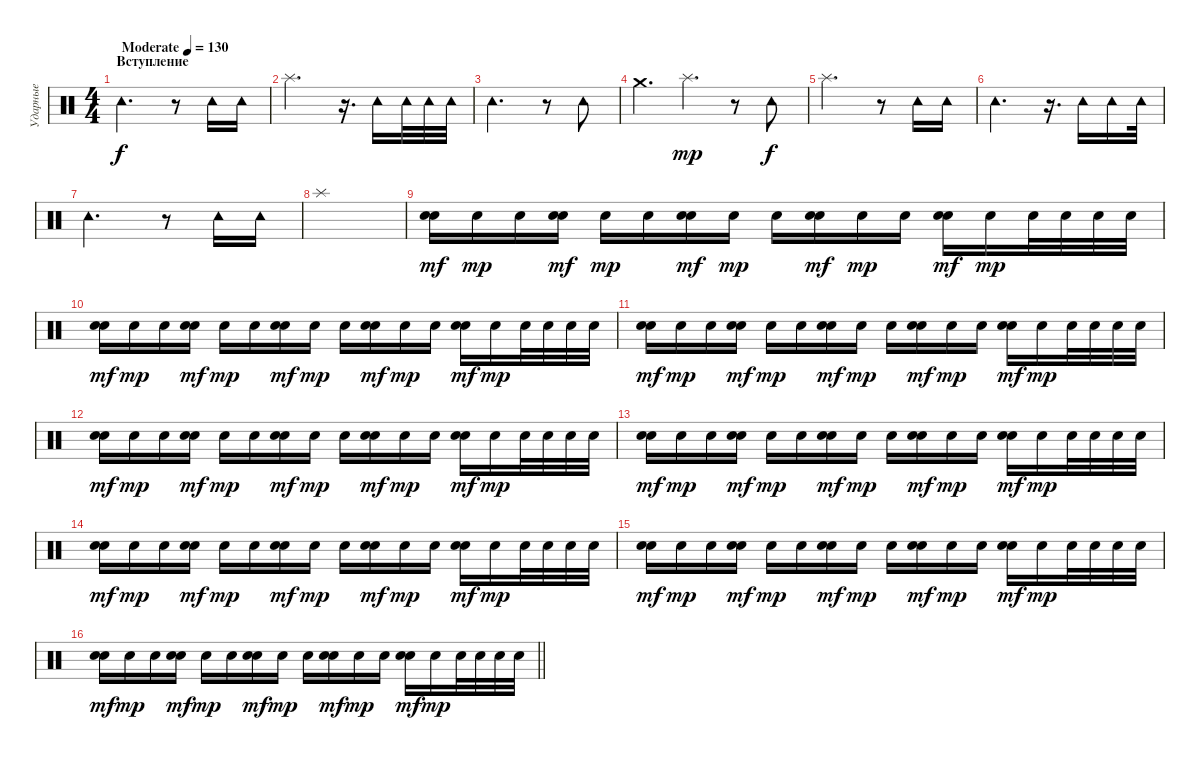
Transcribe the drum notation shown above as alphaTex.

\track ("Ударные" "Ударные") {instrument percussion}
\staff {score}
\articulation defaults
\ts (4 4)
\section ("" "Вступление")
\tempo (130 "Moderate")
\clef neutral
\ks c "Tambourine (hit)".2{d dy f}
r.8 "Tambourine (hit)".16 "Tambourine (hit)".16 |
"Splash (hit)".2{d} r.16{d} "Tambourine (hit)".16 "Tambourine (hit)".32 "Tambourine (hit)".32 "Tambourine (hit)".32 |
"Tambourine (hit)".2{d} r.8 "Tambourine (hit)".8 |
"Crash medium (hit)".4{d} "Splash (hit)".4{d dy mp} r.8 "Tambourine (hit)".8{dy f} |
"Splash (hit)".2{d} r.8 "Tambourine (hit)".16 "Tambourine (hit)".16 |
"Tambourine (hit)".2{d} r.16{d} "Tambourine (hit)".16 "Tambourine (hit)".16 "Tambourine (hit)".32 |
"Tambourine (hit)".2{d} r.8 "Tambourine (hit)".16 "Tambourine (hit)".16 |
"Splash (hit)".1 |
("Electric Snare (hit)" "Snare (hit) 2").16{dy mf} "Snare (hit) 2".16{dy mp} "Snare (hit) 2".16 ("Electric Snare (hit)" "Snare (hit) 2").16{dy mf} "Snare (hit) 2".16{dy mp} "Snare (hit) 2".16 ("Electric Snare (hit)" "Snare (hit) 2").16{dy mf} "Snare (hit) 2".16{dy mp} "Snare (hit) 2".16 ("Electric Snare (hit)" "Snare (hit) 2").16{dy mf} "Snare (hit) 2".16{dy mp} "Snare (hit) 2".16 ("Electric Snare (hit)" "Snare (hit) 2").16{dy mf} "Snare (hit) 2".16{dy mp} "Snare (hit) 2".32 "Snare (hit) 2".32 "Snare (hit) 2".32 "Snare (hit) 2".32 |
("Electric Snare (hit)" "Snare (hit) 2").16{dy mf} "Snare (hit) 2".16{dy mp} "Snare (hit) 2".16 ("Electric Snare (hit)" "Snare (hit) 2").16{dy mf} "Snare (hit) 2".16{dy mp} "Snare (hit) 2".16 ("Electric Snare (hit)" "Snare (hit) 2").16{dy mf} "Snare (hit) 2".16{dy mp} "Snare (hit) 2".16 ("Electric Snare (hit)" "Snare (hit) 2").16{dy mf} "Snare (hit) 2".16{dy mp} "Snare (hit) 2".16 ("Electric Snare (hit)" "Snare (hit) 2").16{dy mf} "Snare (hit) 2".16{dy mp} "Snare (hit) 2".32 "Snare (hit) 2".32 "Snare (hit) 2".32 "Snare (hit) 2".32 |
("Electric Snare (hit)" "Snare (hit) 2").16{dy mf} "Snare (hit) 2".16{dy mp} "Snare (hit) 2".16 ("Electric Snare (hit)" "Snare (hit) 2").16{dy mf} "Snare (hit) 2".16{dy mp} "Snare (hit) 2".16 ("Electric Snare (hit)" "Snare (hit) 2").16{dy mf} "Snare (hit) 2".16{dy mp} "Snare (hit) 2".16 ("Electric Snare (hit)" "Snare (hit) 2").16{dy mf} "Snare (hit) 2".16{dy mp} "Snare (hit) 2".16 ("Electric Snare (hit)" "Snare (hit) 2").16{dy mf} "Snare (hit) 2".16{dy mp} "Snare (hit) 2".32 "Snare (hit) 2".32 "Snare (hit) 2".32 "Snare (hit) 2".32 |
("Electric Snare (hit)" "Snare (hit) 2").16{dy mf} "Snare (hit) 2".16{dy mp} "Snare (hit) 2".16 ("Electric Snare (hit)" "Snare (hit) 2").16{dy mf} "Snare (hit) 2".16{dy mp} "Snare (hit) 2".16 ("Electric Snare (hit)" "Snare (hit) 2").16{dy mf} "Snare (hit) 2".16{dy mp} "Snare (hit) 2".16 ("Electric Snare (hit)" "Snare (hit) 2").16{dy mf} "Snare (hit) 2".16{dy mp} "Snare (hit) 2".16 ("Electric Snare (hit)" "Snare (hit) 2").16{dy mf} "Snare (hit) 2".16{dy mp} "Snare (hit) 2".32 "Snare (hit) 2".32 "Snare (hit) 2".32 "Snare (hit) 2".32 |
("Electric Snare (hit)" "Snare (hit) 2").16{dy mf} "Snare (hit) 2".16{dy mp} "Snare (hit) 2".16 ("Electric Snare (hit)" "Snare (hit) 2").16{dy mf} "Snare (hit) 2".16{dy mp} "Snare (hit) 2".16 ("Electric Snare (hit)" "Snare (hit) 2").16{dy mf} "Snare (hit) 2".16{dy mp} "Snare (hit) 2".16 ("Electric Snare (hit)" "Snare (hit) 2").16{dy mf} "Snare (hit) 2".16{dy mp} "Snare (hit) 2".16 ("Electric Snare (hit)" "Snare (hit) 2").16{dy mf} "Snare (hit) 2".16{dy mp} "Snare (hit) 2".32 "Snare (hit) 2".32 "Snare (hit) 2".32 "Snare (hit) 2".32 |
("Electric Snare (hit)" "Snare (hit) 2").16{dy mf} "Snare (hit) 2".16{dy mp} "Snare (hit) 2".16 ("Electric Snare (hit)" "Snare (hit) 2").16{dy mf} "Snare (hit) 2".16{dy mp} "Snare (hit) 2".16 ("Electric Snare (hit)" "Snare (hit) 2").16{dy mf} "Snare (hit) 2".16{dy mp} "Snare (hit) 2".16 ("Electric Snare (hit)" "Snare (hit) 2").16{dy mf} "Snare (hit) 2".16{dy mp} "Snare (hit) 2".16 ("Electric Snare (hit)" "Snare (hit) 2").16{dy mf} "Snare (hit) 2".16{dy mp} "Snare (hit) 2".32 "Snare (hit) 2".32 "Snare (hit) 2".32 "Snare (hit) 2".32 |
("Electric Snare (hit)" "Snare (hit) 2").16{dy mf} "Snare (hit) 2".16{dy mp} "Snare (hit) 2".16 ("Electric Snare (hit)" "Snare (hit) 2").16{dy mf} "Snare (hit) 2".16{dy mp} "Snare (hit) 2".16 ("Electric Snare (hit)" "Snare (hit) 2").16{dy mf} "Snare (hit) 2".16{dy mp} "Snare (hit) 2".16 ("Electric Snare (hit)" "Snare (hit) 2").16{dy mf} "Snare (hit) 2".16{dy mp} "Snare (hit) 2".16 ("Electric Snare (hit)" "Snare (hit) 2").16{dy mf} "Snare (hit) 2".16{dy mp} "Snare (hit) 2".32 "Snare (hit) 2".32 "Snare (hit) 2".32 "Snare (hit) 2".32 |
\barLineRight lightlight
("Electric Snare (hit)" "Snare (hit) 2").16{dy mf} "Snare (hit) 2".16{dy mp} "Snare (hit) 2".16 ("Electric Snare (hit)" "Snare (hit) 2").16{dy mf} "Snare (hit) 2".16{dy mp} "Snare (hit) 2".16 ("Electric Snare (hit)" "Snare (hit) 2").16{dy mf} "Snare (hit) 2".16{dy mp} "Snare (hit) 2".16 ("Electric Snare (hit)" "Snare (hit) 2").16{dy mf} "Snare (hit) 2".16{dy mp} "Snare (hit) 2".16 ("Electric Snare (hit)" "Snare (hit) 2").16{dy mf} "Snare (hit) 2".16{dy mp} "Snare (hit) 2".32 "Snare (hit) 2".32 "Snare (hit) 2".32 "Snare (hit) 2".32
